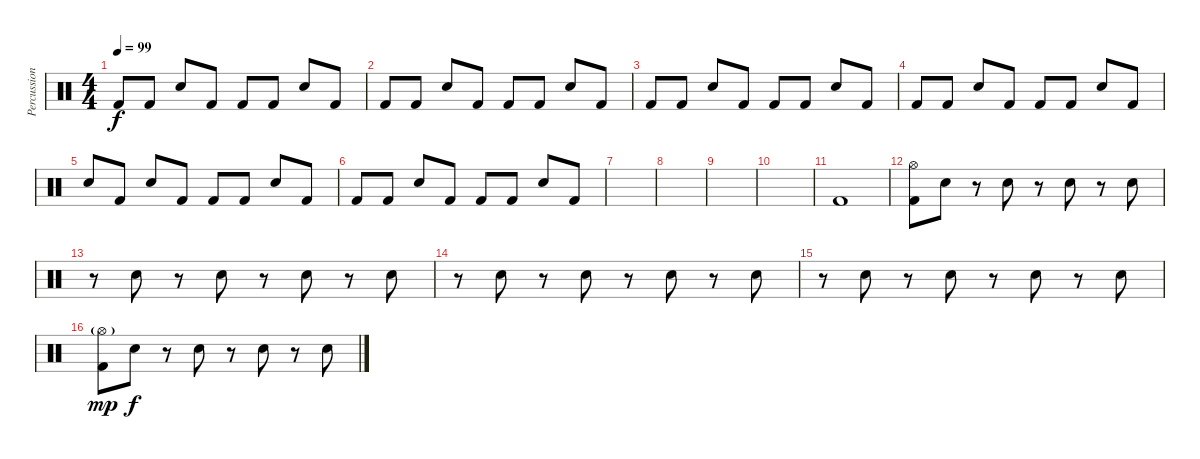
\track ("Percussion" "Percussion") {instrument percussion}
\staff {score}
\articulation defaults
\ts (4 4)
\tempo 99
\clef neutral
\ks c "Kick (hit) 2".8{dy f} "Kick (hit) 2".8 "Electric Snare (hit)".8 "Kick (hit) 2".8 "Kick (hit) 2".8 "Kick (hit) 2".8 "Electric Snare (hit)".8 "Kick (hit) 2".8
|
"Kick (hit) 2".8 "Kick (hit) 2".8 "Electric Snare (hit)".8 "Kick (hit) 2".8 "Kick (hit) 2".8 "Kick (hit) 2".8 "Electric Snare (hit)".8 "Kick (hit) 2".8 |
"Kick (hit) 2".8 "Kick (hit) 2".8 "Electric Snare (hit)".8 "Kick (hit) 2".8 "Kick (hit) 2".8 "Kick (hit) 2".8 "Electric Snare (hit)".8 "Kick (hit) 2".8 |
"Kick (hit) 2".8 "Kick (hit) 2".8 "Electric Snare (hit)".8 "Kick (hit) 2".8 "Kick (hit) 2".8 "Kick (hit) 2".8 "Electric Snare (hit)".8 "Kick (hit) 2".8 |
"Electric Snare (hit)".8 "Kick (hit) 2".8 "Electric Snare (hit)".8 "Kick (hit) 2".8 "Kick (hit) 2".8 "Kick (hit) 2".8 "Electric Snare (hit)".8 "Kick (hit) 2".8 |
"Kick (hit) 2".8 "Kick (hit) 2".8 "Electric Snare (hit)".8 "Kick (hit) 2".8 "Kick (hit) 2".8 "Kick (hit) 2".8 "Electric Snare (hit)".8 "Kick (hit) 2".8 |
|
|
|
|
"Kick (hit) 2".1 |
("Hi-Hat (open)" "Kick (hit) 2").8 "Electric Snare (hit)".8 r.8 "Electric Snare (hit)".8 r.8 "Electric Snare (hit)".8 r.8 "Electric Snare (hit)".8 |
r.8 "Electric Snare (hit)".8 r.8 "Electric Snare (hit)".8 r.8 "Electric Snare (hit)".8 r.8 "Electric Snare (hit)".8 |
r.8 "Electric Snare (hit)".8 r.8 "Electric Snare (hit)".8 r.8 "Electric Snare (hit)".8 r.8 "Electric Snare (hit)".8 |
r.8 "Electric Snare (hit)".8 r.8 "Electric Snare (hit)".8 r.8 "Electric Snare (hit)".8 r.8 "Electric Snare (hit)".8 |
("Hi-Hat (open)"{g} "Kick (hit) 2").8{dy mp} "Electric Snare (hit)".8{dy f} r.8 "Electric Snare (hit)".8 r.8 "Electric Snare (hit)".8 r.8 "Electric Snare (hit)".8
